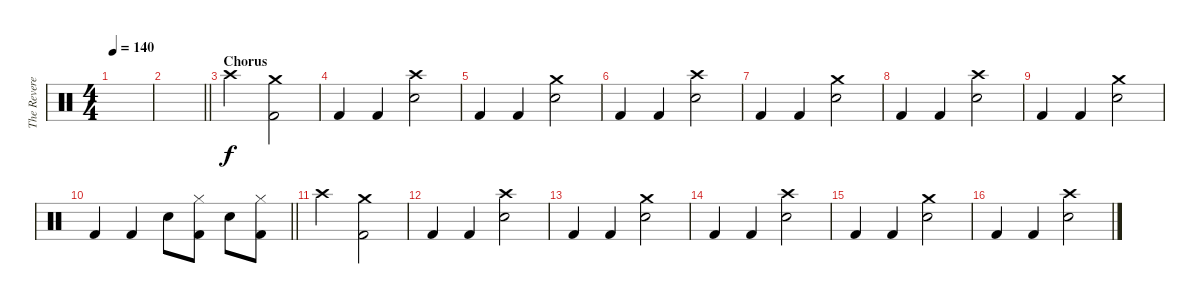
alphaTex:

\track ("The Reverend" "The Revere") {instrument percussion}
\staff {score}
\articulation defaults
\ts (4 4)
\tempo 140
\clef neutral
\ks c
|
\barLineRight lightlight
|
\section ("" "Chorus")
"Crash high (hit)".2 ("Crash medium (hit)" "Kick (hit) 2").2 |
"Kick (hit) 2".4 "Kick (hit) 2".4 ("Crash high (hit)" "Snare (hit) 2").2 |
"Kick (hit) 2".4 "Kick (hit) 2".4 ("Crash medium (hit)" "Snare (hit) 2").2 |
"Kick (hit) 2".4 "Kick (hit) 2".4 ("Crash high (hit)" "Snare (hit) 2").2 |
"Kick (hit) 2".4 "Kick (hit) 2".4 ("Crash medium (hit)" "Snare (hit) 2").2 |
"Kick (hit) 2".4 "Kick (hit) 2".4 ("Crash high (hit)" "Snare (hit) 2").2 |
"Kick (hit) 2".4 "Kick (hit) 2".4 ("Crash medium (hit)" "Snare (hit) 2").2 |
\barLineRight lightlight "Kick (hit) 2".4 "Kick (hit) 2".4 "Snare (hit) 2".8
("Hi-Hat (closed)" "Kick (hit) 2").8 "Snare (hit) 2".8 ("Hi-Hat (closed)" "Kick (hit) 2").8 |
"Crash high (hit)".2 ("Crash medium (hit)" "Kick (hit) 2").2 |
"Kick (hit) 2".4 "Kick (hit) 2".4 ("Crash high (hit)" "Snare (hit) 2").2 |
"Kick (hit) 2".4 "Kick (hit) 2".4 ("Crash medium (hit)" "Snare (hit) 2").2 |
"Kick (hit) 2".4 "Kick (hit) 2".4 ("Crash high (hit)" "Snare (hit) 2").2 |
"Kick (hit) 2".4 "Kick (hit) 2".4 ("Crash medium (hit)" "Snare (hit) 2").2 |
"Kick (hit) 2".4 "Kick (hit) 2".4 ("Crash high (hit)" "Snare (hit) 2").2
